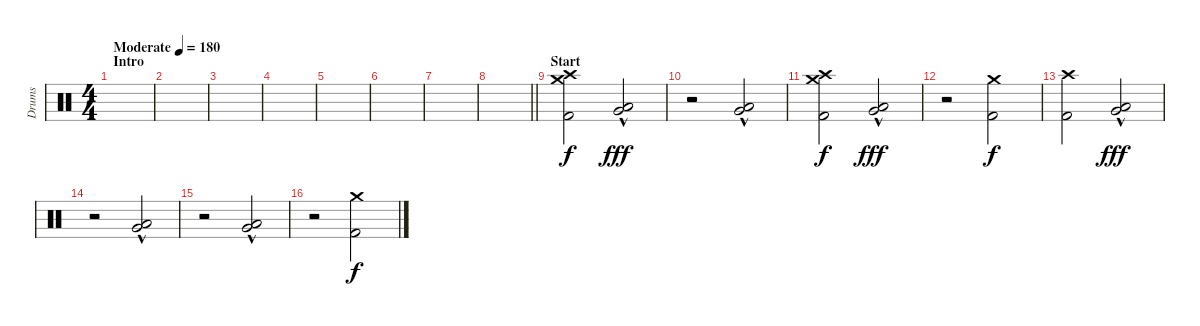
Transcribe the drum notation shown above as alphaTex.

\track ("Drums" "Drums") {instrument percussion}
\staff {score}
\articulation defaults
\ts (4 4)
\section ("" "Intro")
\tempo (180 "Moderate")
\clef neutral
\ks c
|
|
|
|
|
|
|
\barLineRight lightlight
|
\section ("" "Start")
("Crash high (hit)" "Crash medium (hit)" "Kick (hit) 2").2 ("Low Floor Tom (hit)"{hac} "Very Low Tom (hit)"{hac}).2{dy fff} |
r.2 ("Low Floor Tom (hit)"{hac} "Very Low Tom (hit)"{hac}).2 |
("Crash high (hit)" "Crash medium (hit)" "Kick (hit) 2").2{dy f} ("Low Floor Tom (hit)"{hac} "Very Low Tom (hit)"{hac}).2{dy fff} |
r.2 ("Crash medium (hit)" "Kick (hit) 2").2{dy f} |
("Crash high (hit)" "Kick (hit) 2").2 ("Low Floor Tom (hit)"{hac} "Very Low Tom (hit)"{hac}).2{dy fff} |
r.2 ("Low Floor Tom (hit)"{hac} "Very Low Tom (hit)"{hac}).2 |
r.2 ("Low Floor Tom (hit)"{hac} "Very Low Tom (hit)"{hac}).2 |
r.2 ("Crash medium (hit)" "Kick (hit) 2").2{dy f}
